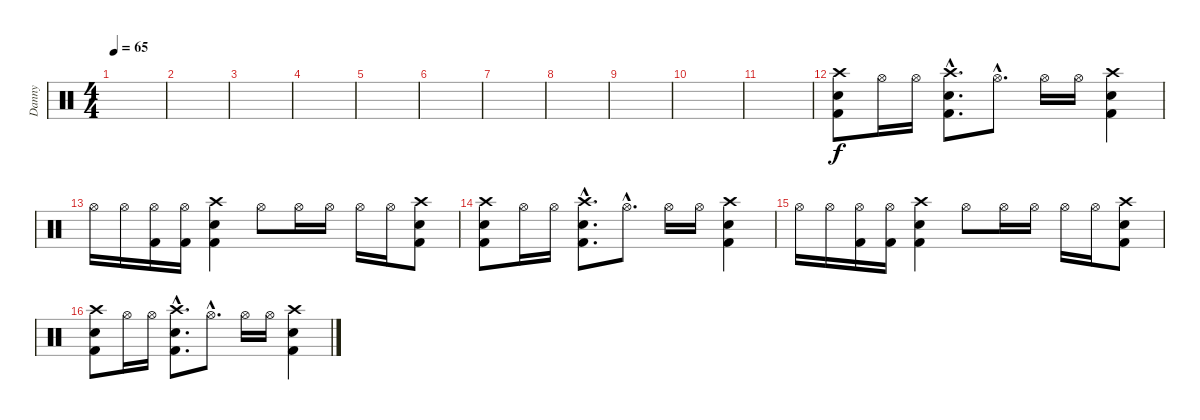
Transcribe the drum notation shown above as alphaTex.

\track ("Danny" "Danny") {instrument percussion}
\staff {score}
\articulation defaults
\ts (4 4)
\tempo 65
\clef neutral
\ks c
|
|
|
|
|
|
|
|
|
|
|
("Crash high (hit)" "Snare (hit) 2" "Kick (hit) 2").8 "Hi-Hat (open)".16 "Hi-Hat (open)".16 ("Crash high (hit)"{hac} "Snare (hit) 2"{hac} "Kick (hit) 2"{hac}).8{d} "Hi-Hat (open)"{hac}.8{d} "Hi-Hat (open)".16 "Hi-Hat (open)".16 ("Crash high (hit)" "Snare (hit) 2" "Kick (hit) 2").4 |
"Hi-Hat (open)".16 "Hi-Hat (open)".16 ("Hi-Hat (open)" "Kick (hit) 2").16 ("Hi-Hat (open)" "Kick (hit) 2").16 ("Crash high (hit)" "Snare (hit) 2" "Kick (hit) 2").4 "Hi-Hat (open)".8 "Hi-Hat (open)".16 "Hi-Hat (open)".16 "Hi-Hat (open)".16 "Hi-Hat (open)".16 ("Crash high (hit)" "Snare (hit) 2" "Kick (hit) 2").8 |
("Crash high (hit)" "Snare (hit) 2" "Kick (hit) 2").8 "Hi-Hat (open)".16 "Hi-Hat (open)".16 ("Crash high (hit)"{hac} "Snare (hit) 2"{hac} "Kick (hit) 2"{hac}).8{d} "Hi-Hat (open)"{hac}.8{d} "Hi-Hat (open)".16 "Hi-Hat (open)".16 ("Crash high (hit)" "Snare (hit) 2" "Kick (hit) 2").4 |
"Hi-Hat (open)".16 "Hi-Hat (open)".16 ("Hi-Hat (open)" "Kick (hit) 2").16 ("Hi-Hat (open)" "Kick (hit) 2").16 ("Crash high (hit)" "Snare (hit) 2" "Kick (hit) 2").4 "Hi-Hat (open)".8 "Hi-Hat (open)".16 "Hi-Hat (open)".16 "Hi-Hat (open)".16 "Hi-Hat (open)".16 ("Crash high (hit)" "Snare (hit) 2" "Kick (hit) 2").8 |
("Crash high (hit)" "Snare (hit) 2" "Kick (hit) 2").8 "Hi-Hat (open)".16 "Hi-Hat (open)".16 ("Crash high (hit)"{hac} "Snare (hit) 2"{hac} "Kick (hit) 2"{hac}).8{d} "Hi-Hat (open)"{hac}.8{d} "Hi-Hat (open)".16 "Hi-Hat (open)".16 ("Crash high (hit)" "Snare (hit) 2" "Kick (hit) 2").4
